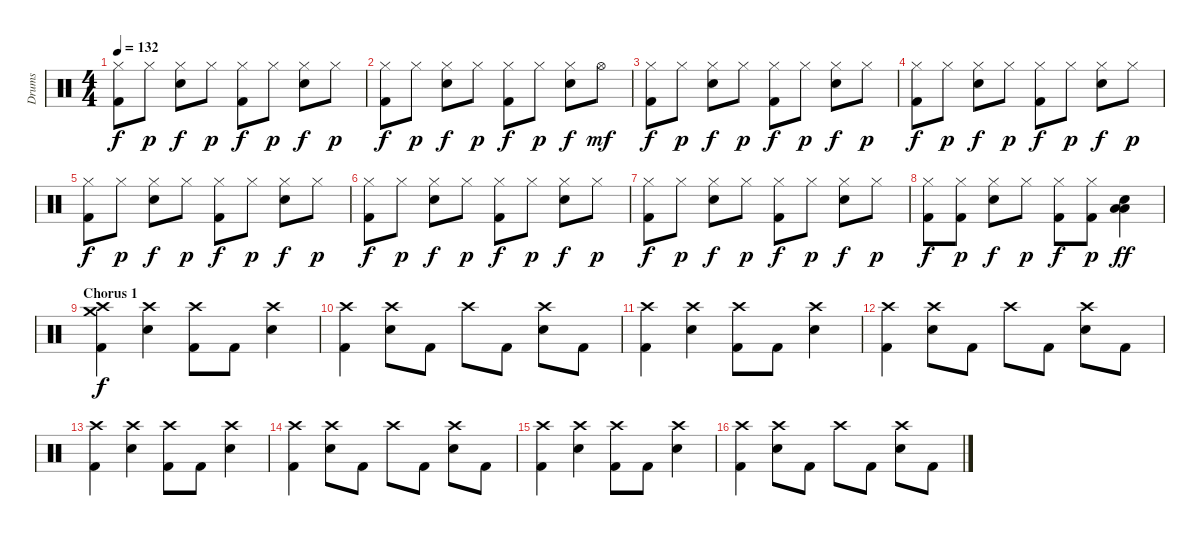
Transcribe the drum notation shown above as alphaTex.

\track ("Drums" "Drums") {instrument percussion}
\staff {score}
\articulation defaults
\ts (4 4)
\tempo 132
\clef neutral
\ks c
("Hi-Hat (closed)" "Kick (hit) 2").8{dy f} "Hi-Hat (closed)".8{dy p} ("Hi-Hat (closed)" "Electric Snare (hit)").8{dy f} "Hi-Hat (closed)".8{dy p} ("Hi-Hat (closed)" "Kick (hit) 2").8{dy f} "Hi-Hat (closed)".8{dy p} ("Hi-Hat (closed)" "Electric Snare (hit)").8{dy f} "Hi-Hat (closed)".8{dy p} |
("Hi-Hat (closed)" "Kick (hit) 2").8{dy f} "Hi-Hat (closed)".8{dy p} ("Hi-Hat (closed)" "Electric Snare (hit)").8{dy f} "Hi-Hat (closed)".8{dy p} ("Hi-Hat (closed)" "Kick (hit) 2").8{dy f} "Hi-Hat (closed)".8{dy p} ("Hi-Hat (closed)" "Electric Snare (hit)").8{dy f} "Hi-Hat (open)".8{dy mf} |
("Hi-Hat (closed)" "Kick (hit) 2").8{dy f} "Hi-Hat (closed)".8{dy p} ("Hi-Hat (closed)" "Electric Snare (hit)").8{dy f} "Hi-Hat (closed)".8{dy p} ("Hi-Hat (closed)" "Kick (hit) 2").8{dy f} "Hi-Hat (closed)".8{dy p} ("Hi-Hat (closed)" "Electric Snare (hit)").8{dy f} "Hi-Hat (closed)".8{dy p} |
("Hi-Hat (closed)" "Kick (hit) 2").8{dy f} "Hi-Hat (closed)".8{dy p} ("Hi-Hat (closed)" "Electric Snare (hit)").8{dy f} "Hi-Hat (closed)".8{dy p} ("Hi-Hat (closed)" "Kick (hit) 2").8{dy f} "Hi-Hat (closed)".8{dy p} ("Hi-Hat (closed)" "Electric Snare (hit)").8{dy f} "Hi-Hat (closed)".8{dy p} |
("Hi-Hat (closed)" "Kick (hit) 2").8{dy f} "Hi-Hat (closed)".8{dy p} ("Hi-Hat (closed)" "Electric Snare (hit)").8{dy f} "Hi-Hat (closed)".8{dy p} ("Hi-Hat (closed)" "Kick (hit) 2").8{dy f} "Hi-Hat (closed)".8{dy p} ("Hi-Hat (closed)" "Electric Snare (hit)").8{dy f} "Hi-Hat (closed)".8{dy p} |
("Hi-Hat (closed)" "Kick (hit) 2").8{dy f} "Hi-Hat (closed)".8{dy p} ("Hi-Hat (closed)" "Electric Snare (hit)").8{dy f} "Hi-Hat (closed)".8{dy p} ("Hi-Hat (closed)" "Kick (hit) 2").8{dy f} "Hi-Hat (closed)".8{dy p} ("Hi-Hat (closed)" "Electric Snare (hit)").8{dy f} "Hi-Hat (closed)".8{dy p} |
("Hi-Hat (closed)" "Kick (hit) 2").8{dy f} "Hi-Hat (closed)".8{dy p} ("Hi-Hat (closed)" "Electric Snare (hit)").8{dy f} "Hi-Hat (closed)".8{dy p} ("Hi-Hat (closed)" "Kick (hit) 2").8{dy f} "Hi-Hat (closed)".8{dy p} ("Hi-Hat (closed)" "Electric Snare (hit)").8{dy f} "Hi-Hat (closed)".8{dy p} |
("Hi-Hat (closed)" "Kick (hit) 2").8{dy f} ("Hi-Hat (closed)" "Kick (hit) 2").8{dy p} ("Hi-Hat (closed)" "Electric Snare (hit)").8{dy f} "Hi-Hat (closed)".8{dy p} ("Hi-Hat (closed)" "Kick (hit) 2").8{dy f} ("Hi-Hat (closed)" "Kick (hit) 2").8{dy p} ("Low Tom (hit)" "Low Floor Tom (hit)" "Electric Snare (hit)").4{dy ff} |
\section ("" "Chorus 1")
("Crash medium (hit)" "Crash high (hit)" "Kick (hit) 2").4{dy f} ("Crash high (hit)" "Electric Snare (hit)").4 ("Crash high (hit)" "Kick (hit) 2").8 "Kick (hit) 2".8 ("Crash high (hit)" "Electric Snare (hit)").4 |
("Crash high (hit)" "Kick (hit) 2").4 ("Crash high (hit)" "Electric Snare (hit)").8 "Kick (hit) 2".8 "Crash high (hit)".8 "Kick (hit) 2".8 ("Crash high (hit)" "Electric Snare (hit)").8 "Kick (hit) 2".8 |
("Crash high (hit)" "Kick (hit) 2").4 ("Crash high (hit)" "Electric Snare (hit)").4 ("Crash high (hit)" "Kick (hit) 2").8 "Kick (hit) 2".8 ("Crash high (hit)" "Electric Snare (hit)").4 |
("Crash high (hit)" "Kick (hit) 2").4 ("Crash high (hit)" "Electric Snare (hit)").8 "Kick (hit) 2".8 "Crash high (hit)".8 "Kick (hit) 2".8 ("Crash high (hit)" "Electric Snare (hit)").8 "Kick (hit) 2".8 |
("Crash high (hit)" "Kick (hit) 2").4 ("Crash high (hit)" "Electric Snare (hit)").4 ("Crash high (hit)" "Kick (hit) 2").8 "Kick (hit) 2".8 ("Crash high (hit)" "Electric Snare (hit)").4 |
("Crash high (hit)" "Kick (hit) 2").4 ("Crash high (hit)" "Electric Snare (hit)").8 "Kick (hit) 2".8 "Crash high (hit)".8 "Kick (hit) 2".8 ("Crash high (hit)" "Electric Snare (hit)").8 "Kick (hit) 2".8 |
("Crash high (hit)" "Kick (hit) 2").4 ("Crash high (hit)" "Electric Snare (hit)").4 ("Crash high (hit)" "Kick (hit) 2").8 "Kick (hit) 2".8 ("Crash high (hit)" "Electric Snare (hit)").4 |
("Crash high (hit)" "Kick (hit) 2").4 ("Crash high (hit)" "Electric Snare (hit)").8 "Kick (hit) 2".8 "Crash high (hit)".8 "Kick (hit) 2".8 ("Crash high (hit)" "Electric Snare (hit)").8 "Kick (hit) 2".8
